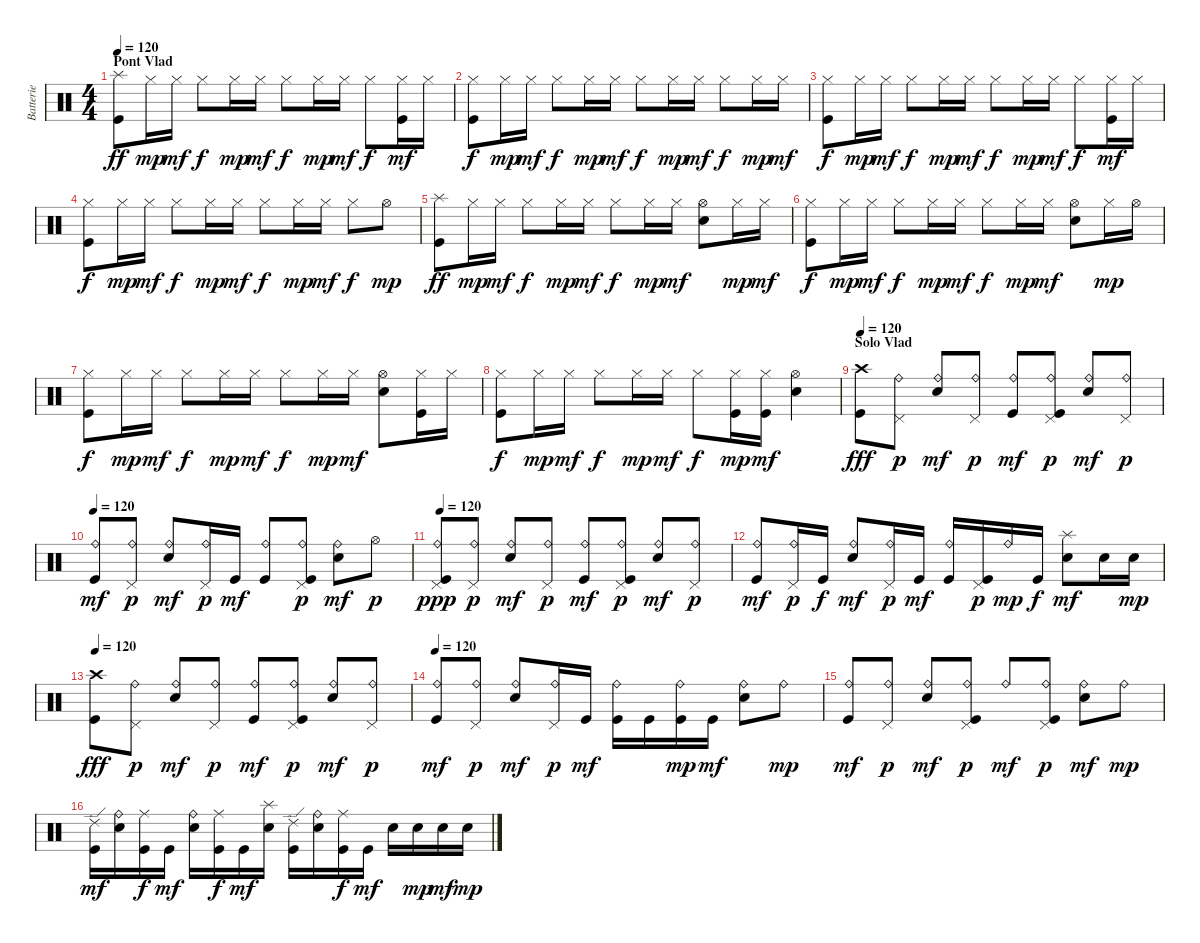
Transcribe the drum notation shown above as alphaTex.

\track ("Batterie" "Batterie") {instrument percussion}
\staff {score}
\articulation defaults
\ts (4 4)
\section ("" "Pont Vlad")
\tempo 120
\clef neutral
\ks c
("Splash (hit)" "Kick (hit)").8{dy ff} "Hi-Hat (closed)".16{dy mp} "Hi-Hat (closed)".16{dy mf} "Hi-Hat (closed)".8{dy f} "Hi-Hat (closed)".16{dy mp} "Hi-Hat (closed)".16{dy mf} "Hi-Hat (closed)".8{dy f} "Hi-Hat (closed)".16{dy mp} "Hi-Hat (closed)".16{dy mf} "Hi-Hat (closed)".8{dy f} ("Hi-Hat (closed)" "Kick (hit)").16{dy mf} "Hi-Hat (closed)".16 |
("Hi-Hat (closed)" "Kick (hit)").8{dy f} "Hi-Hat (closed)".16{dy mp} "Hi-Hat (closed)".16{dy mf} "Hi-Hat (closed)".8{dy f} "Hi-Hat (closed)".16{dy mp} "Hi-Hat (closed)".16{dy mf} "Hi-Hat (closed)".8{dy f} "Hi-Hat (closed)".16{dy mp} "Hi-Hat (closed)".16{dy mf} "Hi-Hat (closed)".8{dy f} "Hi-Hat (closed)".16{dy mp} "Hi-Hat (closed)".16{dy mf} |
("Hi-Hat (closed)" "Kick (hit)").8{dy f} "Hi-Hat (closed)".16{dy mp} "Hi-Hat (closed)".16{dy mf} "Hi-Hat (closed)".8{dy f} "Hi-Hat (closed)".16{dy mp} "Hi-Hat (closed)".16{dy mf} "Hi-Hat (closed)".8{dy f} "Hi-Hat (closed)".16{dy mp} "Hi-Hat (closed)".16{dy mf} "Hi-Hat (closed)".8{dy f} ("Hi-Hat (closed)" "Kick (hit)").16{dy mf} "Hi-Hat (closed)".16 |
("Hi-Hat (closed)" "Kick (hit)").8{dy f} "Hi-Hat (closed)".16{dy mp} "Hi-Hat (closed)".16{dy mf} "Hi-Hat (closed)".8{dy f} "Hi-Hat (closed)".16{dy mp} "Hi-Hat (closed)".16{dy mf} "Hi-Hat (closed)".8{dy f} "Hi-Hat (closed)".16{dy mp} "Hi-Hat (closed)".16{dy mf} "Hi-Hat (closed)".8{dy f} "Hi-Hat (open)".8{dy mp} |
("Splash (hit)" "Kick (hit)").8{dy ff} "Hi-Hat (closed)".16{dy mp} "Hi-Hat (closed)".16{dy mf} "Hi-Hat (closed)".8{dy f} "Hi-Hat (closed)".16{dy mp} "Hi-Hat (closed)".16{dy mf} "Hi-Hat (closed)".8{dy f} "Hi-Hat (closed)".16{dy mp} "Hi-Hat (closed)".16{dy mf} ("Hi-Hat (open)" "Electric Snare (hit)").8 "Hi-Hat (closed)".16{dy mp} "Hi-Hat (closed)".16{dy mf} |
("Hi-Hat (closed)" "Kick (hit)").8{dy f} "Hi-Hat (closed)".16{dy mp} "Hi-Hat (closed)".16{dy mf} "Hi-Hat (closed)".8{dy f} "Hi-Hat (closed)".16{dy mp} "Hi-Hat (closed)".16{dy mf} "Hi-Hat (closed)".8{dy f} "Hi-Hat (closed)".16{dy mp} "Hi-Hat (closed)".16{dy mf} ("Hi-Hat (open)" "Electric Snare (hit)").8 "Hi-Hat (closed)".16{dy mp} "Hi-Hat (open)".16 |
("Hi-Hat (closed)" "Kick (hit)").8{dy f} "Hi-Hat (closed)".16{dy mp} "Hi-Hat (closed)".16{dy mf} "Hi-Hat (closed)".8{dy f} "Hi-Hat (closed)".16{dy mp} "Hi-Hat (closed)".16{dy mf} "Hi-Hat (closed)".8{dy f} "Hi-Hat (closed)".16{dy mp} "Hi-Hat (closed)".16{dy mf} ("Hi-Hat (open)" "Electric Snare (hit)").8 ("Hi-Hat (closed)" "Kick (hit)").16 "Hi-Hat (closed)".16 |
("Hi-Hat (closed)" "Kick (hit)").8{dy f} "Hi-Hat (closed)".16{dy mp} "Hi-Hat (closed)".16{dy mf} "Hi-Hat (closed)".8{dy f} "Hi-Hat (closed)".16{dy mp} "Hi-Hat (closed)".16{dy mf} "Hi-Hat (closed)".8{dy f} ("Hi-Hat (closed)" "Kick (hit)").16{dy mp} ("Hi-Hat (closed)" "Kick (hit)").16{dy mf} ("Hi-Hat (open)" "Electric Snare (hit)").4 |
\section ("" "Solo Vlad")
\tempo 120
("Crash high (hit)" "Kick (hit)").8{dy fff} ("Ride (bell)" "Pedal Hi-Hat (hit)").8{dy p} ("Ride (bell)" "Electric Snare (hit)").8{dy mf} ("Ride (bell)" "Pedal Hi-Hat (hit)").8{dy p} ("Ride (bell)" "Kick (hit)").8{dy mf} ("Ride (bell)" "Pedal Hi-Hat (hit)" "Kick (hit)").8{dy p} ("Ride (bell)" "Electric Snare (hit)").8{dy mf} ("Ride (bell)" "Pedal Hi-Hat (hit)").8{dy p} |
\tempo 120
("Ride (bell)" "Kick (hit)").8{dy mf} ("Ride (bell)" "Pedal Hi-Hat (hit)").8{dy p} ("Ride (bell)" "Electric Snare (hit)").8{dy mf} ("Ride (bell)" "Pedal Hi-Hat (hit)").16{dy p} "Kick (hit)".16{dy mf} ("Ride (bell)" "Kick (hit)").8 ("Ride (bell)" "Pedal Hi-Hat (hit)" "Kick (hit)").8{dy p} ("Ride (bell)" "Electric Snare (hit)").8{dy mf} "Hi-Hat (open)".8{dy p} |
\tempo 120
("Ride (bell)" "Pedal Hi-Hat (hit)" "Kick (hit)").8{dy ppp} ("Ride (bell)" "Pedal Hi-Hat (hit)").8{dy p} ("Ride (bell)" "Electric Snare (hit)").8{dy mf} ("Ride (bell)" "Pedal Hi-Hat (hit)").8{dy p} ("Ride (bell)" "Kick (hit)").8{dy mf} ("Ride (bell)" "Pedal Hi-Hat (hit)" "Kick (hit)").8{dy p} ("Ride (bell)" "Electric Snare (hit)").8{dy mf} ("Ride (bell)" "Pedal Hi-Hat (hit)").8{dy p} |
("Ride (bell)" "Kick (hit)").8{dy mf} ("Ride (bell)" "Pedal Hi-Hat (hit)").16{dy p} "Kick (hit)".16{dy f} ("Ride (bell)" "Electric Snare (hit)").8{dy mf} ("Ride (bell)" "Pedal Hi-Hat (hit)").16{dy p} "Kick (hit)".16{dy mf} ("Ride (bell)" "Kick (hit)").16 ("Pedal Hi-Hat (hit)" "Kick (hit)").16{dy p} "Ride (bell)".16{dy mp} "Kick (hit)".16{dy f} ("Splash (hit)" "Electric Snare (hit)").8{dy mf} "Electric Snare (hit)".16 "Electric Snare (hit)".16{dy mp} |
\tempo 120
("Crash high (hit)" "Kick (hit)").8{dy fff} ("Ride (bell)" "Pedal Hi-Hat (hit)").8{dy p} ("Ride (bell)" "Electric Snare (hit)").8{dy mf} ("Ride (bell)" "Pedal Hi-Hat (hit)").8{dy p} ("Ride (bell)" "Kick (hit)").8{dy mf} ("Ride (bell)" "Pedal Hi-Hat (hit)" "Kick (hit)").8{dy p} ("Ride (bell)" "Electric Snare (hit)").8{dy mf} ("Ride (bell)" "Pedal Hi-Hat (hit)").8{dy p} |
\tempo 120
("Ride (bell)" "Kick (hit)").8{dy mf} ("Ride (bell)" "Pedal Hi-Hat (hit)").8{dy p} ("Ride (bell)" "Electric Snare (hit)").8{dy mf} ("Ride (bell)" "Pedal Hi-Hat (hit)").16{dy p} "Kick (hit)".16{dy mf} ("Ride (bell)" "Kick (hit)").16 "Kick (hit)".16 ("Ride (bell)" "Kick (hit)").16{dy mp} "Kick (hit)".16{dy mf} ("Ride (bell)" "Electric Snare (hit)").8 "Ride (bell)".8{dy mp} |
("Ride (bell)" "Kick (hit)").8{dy mf} ("Ride (bell)" "Pedal Hi-Hat (hit)").8{dy p} ("Ride (bell)" "Electric Snare (hit)").8{dy mf} ("Ride (bell)" "Pedal Hi-Hat (hit)" "Kick (hit)").8{dy p} "Ride (bell)".8{dy mf} ("Ride (bell)" "Pedal Hi-Hat (hit)" "Kick (hit)").8{dy p} ("Ride (bell)" "Electric Snare (hit)").8{dy mf} "Ride (bell)".8{dy mp} |
("Ride (edge) 2" "Kick (hit)").16{dy mf} ("Ride (bell)" "Electric Snare (hit)").16 ("Ride (middle)" "Kick (hit)").16{dy f} "Kick (hit)".16{dy mf} ("Ride (bell)" "Electric Snare (hit)").16 ("Ride (middle)" "Kick (hit)").16{dy f} "Kick (hit)".16{dy mf} ("Splash (hit)" "Electric Snare (hit)").16 ("Ride (edge) 2" "Kick (hit)").16 ("Ride (bell)" "Electric Snare (hit)").16 ("Ride (middle)" "Kick (hit)").16{dy f} "Kick (hit)".16{dy mf} "Electric Snare (hit)".16 "Electric Snare (hit)".16{dy mp} "Electric Snare (hit)".16{dy mf} "Electric Snare (hit)".16{dy mp}
